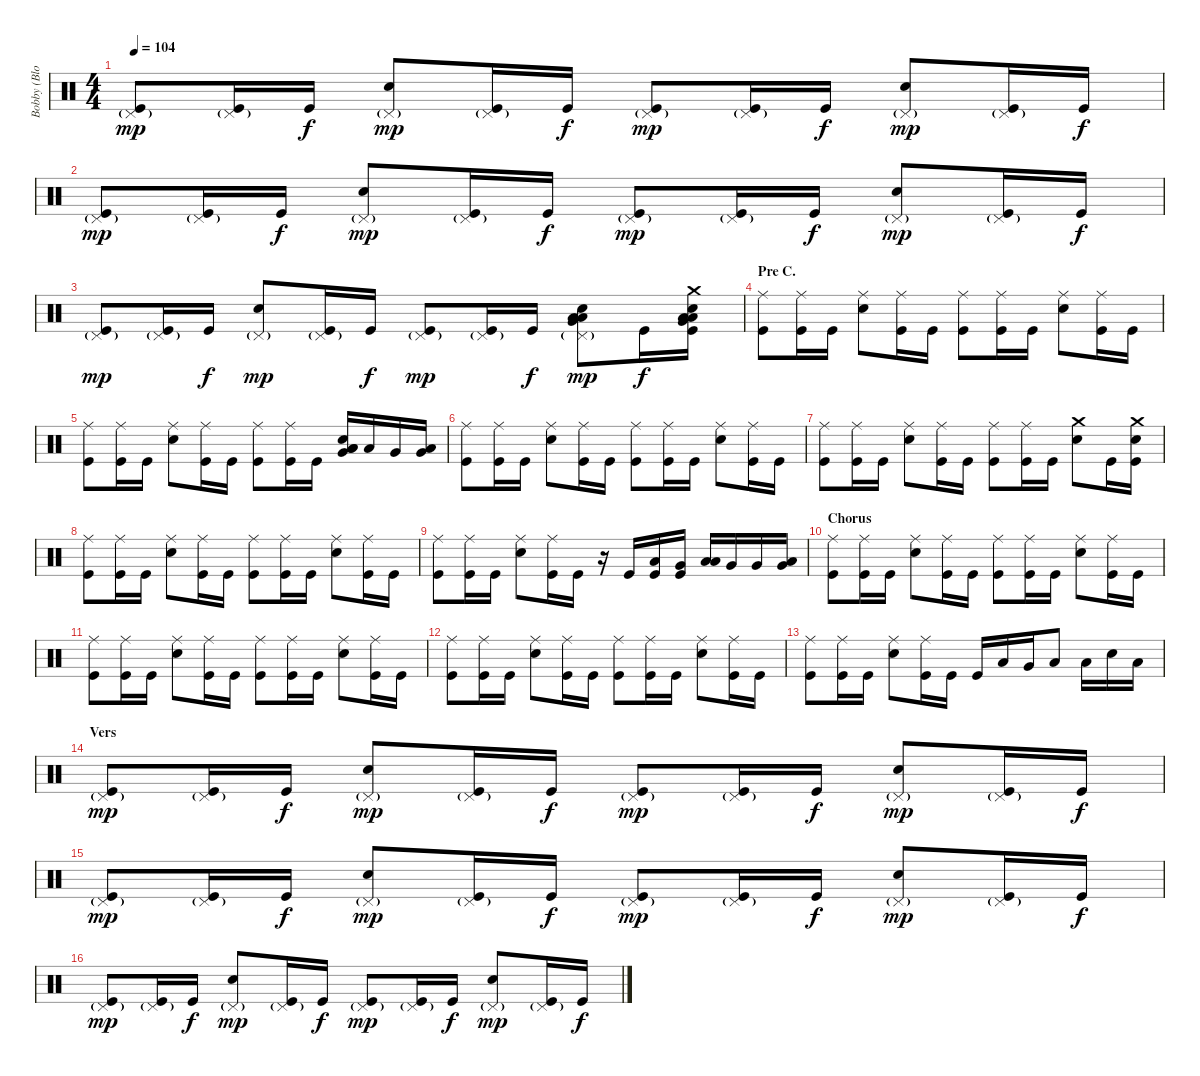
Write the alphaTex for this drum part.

\track ("Bobby (Blotz) Blotzer - Drums" "Bobby (Blo") {instrument percussion}
\staff {score}
\articulation defaults
\ts (4 4)
\tempo 104
\clef neutral
\ks c
("Pedal Hi-Hat (hit)"{g} "Kick (hit)").8{dy mp} ("Pedal Hi-Hat (hit)"{g} "Kick (hit)").16 "Kick (hit)".16{dy f} ("Pedal Hi-Hat (hit)"{g} "Snare (hit) 2").8{dy mp} ("Pedal Hi-Hat (hit)"{g} "Kick (hit)").16 "Kick (hit)".16{dy f} ("Pedal Hi-Hat (hit)"{g} "Kick (hit)").8{dy mp} ("Pedal Hi-Hat (hit)"{g} "Kick (hit)").16 "Kick (hit)".16{dy f} ("Pedal Hi-Hat (hit)"{g} "Snare (hit) 2").8{dy mp} ("Pedal Hi-Hat (hit)"{g} "Kick (hit)").16 "Kick (hit)".16{dy f} |
("Pedal Hi-Hat (hit)"{g} "Kick (hit)").8{dy mp} ("Pedal Hi-Hat (hit)"{g} "Kick (hit)").16 "Kick (hit)".16{dy f} ("Pedal Hi-Hat (hit)"{g} "Snare (hit) 2").8{dy mp} ("Pedal Hi-Hat (hit)"{g} "Kick (hit)").16 "Kick (hit)".16{dy f} ("Pedal Hi-Hat (hit)"{g} "Kick (hit)").8{dy mp} ("Pedal Hi-Hat (hit)"{g} "Kick (hit)").16 "Kick (hit)".16{dy f} ("Pedal Hi-Hat (hit)"{g} "Snare (hit) 2").8{dy mp} ("Pedal Hi-Hat (hit)"{g} "Kick (hit)").16 "Kick (hit)".16{dy f} |
("Pedal Hi-Hat (hit)"{g} "Kick (hit)").8{dy mp} ("Pedal Hi-Hat (hit)"{g} "Kick (hit)").16 "Kick (hit)".16{dy f} ("Pedal Hi-Hat (hit)"{g} "Snare (hit) 2").8{dy mp} ("Pedal Hi-Hat (hit)"{g} "Kick (hit)").16 "Kick (hit)".16{dy f} ("Pedal Hi-Hat (hit)"{g} "Kick (hit)").8{dy mp} ("Pedal Hi-Hat (hit)"{g} "Kick (hit)").16 "Kick (hit)".16{dy f} ("Pedal Hi-Hat (hit)"{g} "Very Low Tom (hit)" "Low Tom (hit)" "Snare (hit) 2" "Low Floor Tom (hit)").8{dy mp} "Kick (hit)".16{dy f} ("Crash medium (hit)" "Very Low Tom (hit)" "Low Tom (hit)" "Snare (hit) 2" "Low Floor Tom (hit)" "Kick (hit)").16 |
\section ("" "Pre C.")
("Ride (middle)" "Kick (hit)").8 ("Ride (middle)" "Kick (hit)").16 "Kick (hit)".16 ("Ride (middle)" "Snare (hit) 2").8 ("Ride (middle)" "Kick (hit)").16 "Kick (hit)".16 ("Ride (middle)" "Kick (hit)").8 ("Ride (middle)" "Kick (hit)").16 "Kick (hit)".16 ("Ride (middle)" "Snare (hit) 2").8 ("Ride (middle)" "Kick (hit)").16 "Kick (hit)".16 |
("Ride (middle)" "Kick (hit)").8 ("Ride (middle)" "Kick (hit)").16 "Kick (hit)".16 ("Ride (middle)" "Snare (hit) 2").8 ("Ride (middle)" "Kick (hit)").16 "Kick (hit)".16 ("Ride (middle)" "Kick (hit)").8 ("Ride (middle)" "Kick (hit)").16 "Kick (hit)".16 ("Very Low Tom (hit)" "Low Tom (hit)" "Snare (hit) 2" "Low Floor Tom (hit)").16 "Low Tom (hit)".16 "Very Low Tom (hit)".16 ("Very Low Tom (hit)" "Low Floor Tom (hit)").16 |
("Ride (middle)" "Kick (hit)").8 ("Ride (middle)" "Kick (hit)").16 "Kick (hit)".16 ("Ride (middle)" "Snare (hit) 2").8 ("Ride (middle)" "Kick (hit)").16 "Kick (hit)".16 ("Ride (middle)" "Kick (hit)").8 ("Ride (middle)" "Kick (hit)").16 "Kick (hit)".16 ("Ride (middle)" "Snare (hit) 2").8 ("Ride (middle)" "Kick (hit)").16 "Kick (hit)".16 |
("Ride (middle)" "Kick (hit)").8 ("Ride (middle)" "Kick (hit)").16 "Kick (hit)".16 ("Ride (middle)" "Snare (hit) 2").8 ("Ride (middle)" "Kick (hit)").16 "Kick (hit)".16 ("Ride (middle)" "Kick (hit)").8 ("Ride (middle)" "Kick (hit)").16 "Kick (hit)".16 ("Crash medium (hit)" "Snare (hit) 2").8 "Kick (hit)".16 ("Crash medium (hit)" "Snare (hit) 2" "Kick (hit)").16 |
("Ride (middle)" "Kick (hit)").8 ("Ride (middle)" "Kick (hit)").16 "Kick (hit)".16 ("Ride (middle)" "Snare (hit) 2").8 ("Ride (middle)" "Kick (hit)").16 "Kick (hit)".16 ("Ride (middle)" "Kick (hit)").8 ("Ride (middle)" "Kick (hit)").16 "Kick (hit)".16 ("Ride (middle)" "Snare (hit) 2").8 ("Ride (middle)" "Kick (hit)").16 "Kick (hit)".16 |
("Ride (middle)" "Kick (hit)").8 ("Ride (middle)" "Kick (hit)").16 "Kick (hit)".16 ("Ride (middle)" "Snare (hit) 2").8 ("Ride (middle)" "Kick (hit)").16 "Kick (hit)".16 r.16 "Kick (hit)".16 ("Low Tom (hit)" "Kick (hit)").16 ("Very Low Tom (hit)" "Kick (hit)").16 ("Low Tom (hit)" "Low Floor Tom (hit)").16 "Very Low Tom (hit)".16 "Very Low Tom (hit)".16 ("Very Low Tom (hit)" "Low Floor Tom (hit)").16 |
\section ("" "Chorus")
("Ride (middle)" "Kick (hit)").8 ("Ride (middle)" "Kick (hit)").16 "Kick (hit)".16 ("Ride (middle)" "Snare (hit) 2").8 ("Ride (middle)" "Kick (hit)").16 "Kick (hit)".16 ("Ride (middle)" "Kick (hit)").8 ("Ride (middle)" "Kick (hit)").16 "Kick (hit)".16 ("Ride (middle)" "Snare (hit) 2").8 ("Ride (middle)" "Kick (hit)").16 "Kick (hit)".16 |
("Ride (middle)" "Kick (hit)").8 ("Ride (middle)" "Kick (hit)").16 "Kick (hit)".16 ("Ride (middle)" "Snare (hit) 2").8 ("Ride (middle)" "Kick (hit)").16 "Kick (hit)".16 ("Ride (middle)" "Kick (hit)").8 ("Ride (middle)" "Kick (hit)").16 "Kick (hit)".16 ("Ride (middle)" "Snare (hit) 2").8 ("Ride (middle)" "Kick (hit)").16 "Kick (hit)".16 |
("Ride (middle)" "Kick (hit)").8 ("Ride (middle)" "Kick (hit)").16 "Kick (hit)".16 ("Ride (middle)" "Snare (hit) 2").8 ("Ride (middle)" "Kick (hit)").16 "Kick (hit)".16 ("Ride (middle)" "Kick (hit)").8 ("Ride (middle)" "Kick (hit)").16 "Kick (hit)".16 ("Ride (middle)" "Snare (hit) 2").8 ("Ride (middle)" "Kick (hit)").16 "Kick (hit)".16 |
("Ride (middle)" "Kick (hit)").8 ("Ride (middle)" "Kick (hit)").16 "Kick (hit)".16 ("Ride (middle)" "Snare (hit) 2").8 ("Ride (middle)" "Kick (hit)").16 "Kick (hit)".16 "Kick (hit)".16 "Low Tom (hit)".16 "Very Low Tom (hit)".16 "Low Tom (hit)".8 "Low Floor Tom (hit)".16 "Snare (hit) 2".16 "Low Tom (hit)".16 |
\section ("" "Vers")
("Pedal Hi-Hat (hit)"{g} "Kick (hit)").8{dy mp} ("Pedal Hi-Hat (hit)"{g} "Kick (hit)").16 "Kick (hit)".16{dy f} ("Pedal Hi-Hat (hit)"{g} "Snare (hit) 2").8{dy mp} ("Pedal Hi-Hat (hit)"{g} "Kick (hit)").16 "Kick (hit)".16{dy f} ("Pedal Hi-Hat (hit)"{g} "Kick (hit)").8{dy mp} ("Pedal Hi-Hat (hit)"{g} "Kick (hit)").16 "Kick (hit)".16{dy f} ("Pedal Hi-Hat (hit)"{g} "Snare (hit) 2").8{dy mp} ("Pedal Hi-Hat (hit)"{g} "Kick (hit)").16 "Kick (hit)".16{dy f} |
("Pedal Hi-Hat (hit)"{g} "Kick (hit)").8{dy mp} ("Pedal Hi-Hat (hit)"{g} "Kick (hit)").16 "Kick (hit)".16{dy f} ("Pedal Hi-Hat (hit)"{g} "Snare (hit) 2").8{dy mp} ("Pedal Hi-Hat (hit)"{g} "Kick (hit)").16 "Kick (hit)".16{dy f} ("Pedal Hi-Hat (hit)"{g} "Kick (hit)").8{dy mp} ("Pedal Hi-Hat (hit)"{g} "Kick (hit)").16 "Kick (hit)".16{dy f} ("Pedal Hi-Hat (hit)"{g} "Snare (hit) 2").8{dy mp} ("Pedal Hi-Hat (hit)"{g} "Kick (hit)").16 "Kick (hit)".16{dy f} |
("Pedal Hi-Hat (hit)"{g} "Kick (hit)").8{dy mp} ("Pedal Hi-Hat (hit)"{g} "Kick (hit)").16 "Kick (hit)".16{dy f} ("Pedal Hi-Hat (hit)"{g} "Snare (hit) 2").8{dy mp} ("Pedal Hi-Hat (hit)"{g} "Kick (hit)").16 "Kick (hit)".16{dy f} ("Pedal Hi-Hat (hit)"{g} "Kick (hit)").8{dy mp} ("Pedal Hi-Hat (hit)"{g} "Kick (hit)").16 "Kick (hit)".16{dy f} ("Pedal Hi-Hat (hit)"{g} "Snare (hit) 2").8{dy mp} ("Pedal Hi-Hat (hit)"{g} "Kick (hit)").16 "Kick (hit)".16{dy f}
